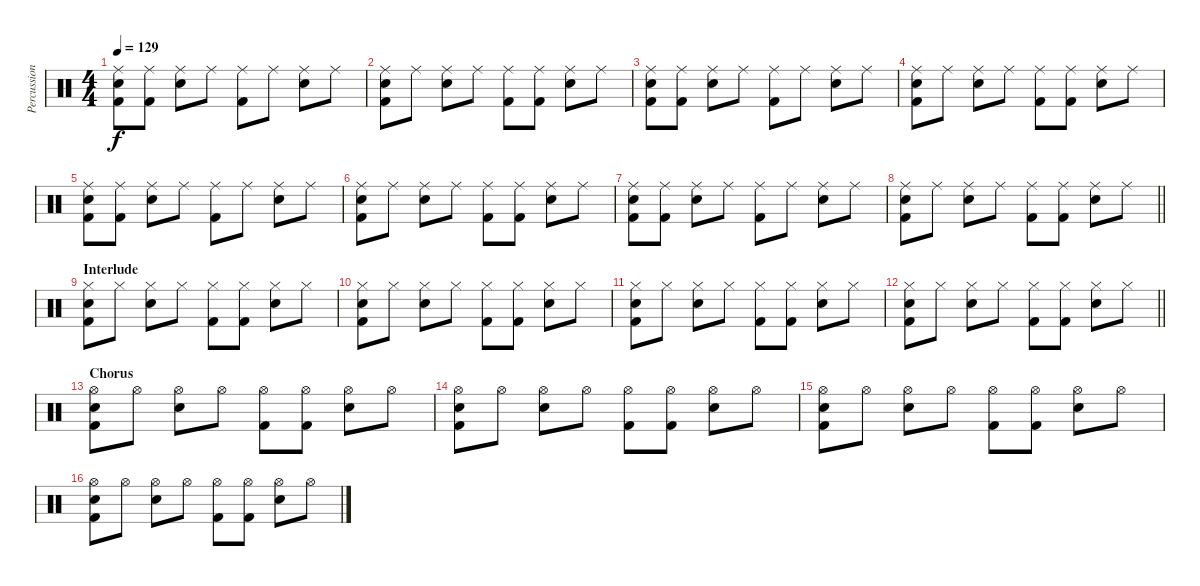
\track ("Percussion" "Percussion") {instrument percussion}
\staff {score}
\articulation defaults
\ts (4 4)
\tempo 129
\clef neutral
\ks c
("Ride (middle)" "Electric Snare (hit)" "Kick (hit) 2").8{dy f} ("Ride (middle)" "Kick (hit) 2").8 ("Ride (middle)" "Electric Snare (hit)").8 "Ride (middle)".8 ("Ride (middle)" "Kick (hit) 2").8 "Ride (middle)".8 ("Ride (middle)" "Electric Snare (hit)").8 "Ride (middle)".8 |
("Ride (middle)" "Electric Snare (hit)" "Kick (hit) 2").8 "Ride (middle)".8 ("Ride (middle)" "Electric Snare (hit)").8 "Ride (middle)".8 ("Ride (middle)" "Kick (hit) 2").8 ("Ride (middle)" "Kick (hit) 2").8 ("Ride (middle)" "Electric Snare (hit)").8 "Ride (middle)".8 |
("Ride (middle)" "Electric Snare (hit)" "Kick (hit) 2").8 ("Ride (middle)" "Kick (hit) 2").8 ("Ride (middle)" "Electric Snare (hit)").8 "Ride (middle)".8 ("Ride (middle)" "Kick (hit) 2").8 "Ride (middle)".8 ("Ride (middle)" "Electric Snare (hit)").8 "Ride (middle)".8 |
("Ride (middle)" "Electric Snare (hit)" "Kick (hit) 2").8 "Ride (middle)".8 ("Ride (middle)" "Electric Snare (hit)").8 "Ride (middle)".8 ("Ride (middle)" "Kick (hit) 2").8 ("Ride (middle)" "Kick (hit) 2").8 ("Ride (middle)" "Electric Snare (hit)").8 "Ride (middle)".8 |
("Ride (middle)" "Electric Snare (hit)" "Kick (hit) 2").8 ("Ride (middle)" "Kick (hit) 2").8 ("Ride (middle)" "Electric Snare (hit)").8 "Ride (middle)".8 ("Ride (middle)" "Kick (hit) 2").8 "Ride (middle)".8 ("Ride (middle)" "Electric Snare (hit)").8 "Ride (middle)".8 |
("Ride (middle)" "Electric Snare (hit)" "Kick (hit) 2").8 "Ride (middle)".8 ("Ride (middle)" "Electric Snare (hit)").8 "Ride (middle)".8 ("Ride (middle)" "Kick (hit) 2").8 ("Ride (middle)" "Kick (hit) 2").8 ("Ride (middle)" "Electric Snare (hit)").8 "Ride (middle)".8 |
("Ride (middle)" "Electric Snare (hit)" "Kick (hit) 2").8 ("Ride (middle)" "Kick (hit) 2").8 ("Ride (middle)" "Electric Snare (hit)").8 "Ride (middle)".8 ("Ride (middle)" "Kick (hit) 2").8 "Ride (middle)".8 ("Ride (middle)" "Electric Snare (hit)").8 "Ride (middle)".8 |
\barLineRight lightlight
("Ride (middle)" "Electric Snare (hit)" "Kick (hit) 2").8 "Ride (middle)".8 ("Ride (middle)" "Electric Snare (hit)").8 "Ride (middle)".8 ("Ride (middle)" "Kick (hit) 2").8 ("Ride (middle)" "Kick (hit) 2").8 ("Ride (middle)" "Electric Snare (hit)").8 "Ride (middle)".8 |
\section ("" "Interlude")
("Hi-Hat (closed)" "Electric Snare (hit)" "Kick (hit) 2").8 "Hi-Hat (closed)".8 ("Hi-Hat (closed)" "Electric Snare (hit)").8 "Hi-Hat (closed)".8 ("Hi-Hat (closed)" "Kick (hit) 2").8 ("Hi-Hat (closed)" "Kick (hit) 2").8 ("Hi-Hat (closed)" "Electric Snare (hit)").8 "Hi-Hat (closed)".8 |
("Hi-Hat (closed)" "Electric Snare (hit)" "Kick (hit) 2").8 "Hi-Hat (closed)".8 ("Hi-Hat (closed)" "Electric Snare (hit)").8 "Hi-Hat (closed)".8 ("Hi-Hat (closed)" "Kick (hit) 2").8 ("Hi-Hat (closed)" "Kick (hit) 2").8 ("Hi-Hat (closed)" "Electric Snare (hit)").8 "Hi-Hat (closed)".8 |
("Hi-Hat (closed)" "Electric Snare (hit)" "Kick (hit) 2").8 "Hi-Hat (closed)".8 ("Hi-Hat (closed)" "Electric Snare (hit)").8 "Hi-Hat (closed)".8 ("Hi-Hat (closed)" "Kick (hit) 2").8 ("Hi-Hat (closed)" "Kick (hit) 2").8 ("Hi-Hat (closed)" "Electric Snare (hit)").8 "Hi-Hat (closed)".8 |
\barLineRight lightlight
("Hi-Hat (closed)" "Electric Snare (hit)" "Kick (hit) 2").8 "Hi-Hat (closed)".8 ("Hi-Hat (closed)" "Electric Snare (hit)").8 "Hi-Hat (closed)".8 ("Hi-Hat (closed)" "Kick (hit) 2").8 ("Hi-Hat (closed)" "Kick (hit) 2").8 ("Hi-Hat (closed)" "Electric Snare (hit)").8 "Hi-Hat (closed)".8 |
\section ("" "Chorus")
("Hi-Hat (open)" "Electric Snare (hit)" "Kick (hit) 2").8 "Hi-Hat (open)".8 ("Hi-Hat (open)" "Electric Snare (hit)").8 "Hi-Hat (open)".8 ("Hi-Hat (open)" "Kick (hit) 2").8 ("Hi-Hat (open)" "Kick (hit) 2").8 ("Hi-Hat (open)" "Electric Snare (hit)").8 "Hi-Hat (open)".8 |
("Hi-Hat (open)" "Electric Snare (hit)" "Kick (hit) 2").8 "Hi-Hat (open)".8 ("Hi-Hat (open)" "Electric Snare (hit)").8 "Hi-Hat (open)".8 ("Hi-Hat (open)" "Kick (hit) 2").8 ("Hi-Hat (open)" "Kick (hit) 2").8 ("Hi-Hat (open)" "Electric Snare (hit)").8 "Hi-Hat (open)".8 |
("Hi-Hat (open)" "Electric Snare (hit)" "Kick (hit) 2").8 "Hi-Hat (open)".8 ("Hi-Hat (open)" "Electric Snare (hit)").8 "Hi-Hat (open)".8 ("Hi-Hat (open)" "Kick (hit) 2").8 ("Hi-Hat (open)" "Kick (hit) 2").8 ("Hi-Hat (open)" "Electric Snare (hit)").8 "Hi-Hat (open)".8 |
("Hi-Hat (open)" "Electric Snare (hit)" "Kick (hit) 2").8 "Hi-Hat (open)".8 ("Hi-Hat (open)" "Electric Snare (hit)").8 "Hi-Hat (open)".8 ("Hi-Hat (open)" "Kick (hit) 2").8 ("Hi-Hat (open)" "Kick (hit) 2").8 ("Hi-Hat (open)" "Electric Snare (hit)").8 "Hi-Hat (open)".8
